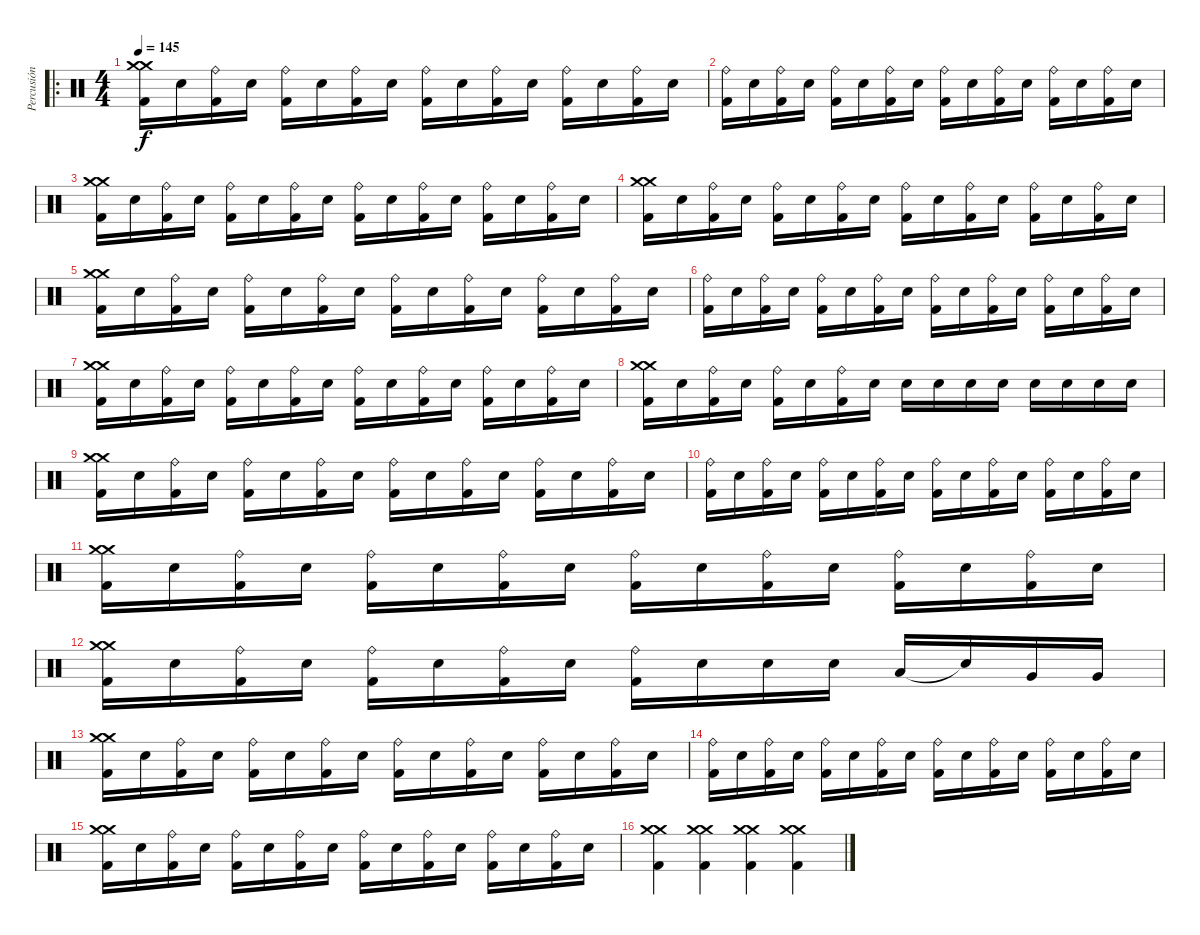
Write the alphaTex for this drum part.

\track ("Percusión" "Percusión") {instrument percussion}
\staff {score}
\articulation defaults
\ro
\ts (4 4)
\tempo 145
\clef neutral
\ks c
("Crash medium (hit)" "Crash medium (hit)" "Kick (hit) 2").16{dy f} "Snare (hit) 2".16 ("Ride (bell)" "Kick (hit) 2").16 "Snare (hit) 2".16 ("Ride (bell)" "Kick (hit) 2").16 "Snare (hit) 2".16 ("Ride (bell)" "Kick (hit) 2").16 "Snare (hit) 2".16 ("Ride (bell)" "Kick (hit) 2").16 "Snare (hit) 2".16 ("Ride (bell)" "Kick (hit) 2").16 "Snare (hit) 2".16 ("Ride (bell)" "Kick (hit) 2").16 "Snare (hit) 2".16 ("Ride (bell)" "Kick (hit) 2").16 "Snare (hit) 2".16 |
("Ride (bell)" "Kick (hit) 2").16 "Snare (hit) 2".16 ("Ride (bell)" "Kick (hit) 2").16 "Snare (hit) 2".16 ("Ride (bell)" "Kick (hit) 2").16 "Snare (hit) 2".16 ("Ride (bell)" "Kick (hit) 2").16 "Snare (hit) 2".16 ("Ride (bell)" "Kick (hit) 2").16 "Snare (hit) 2".16 ("Ride (bell)" "Kick (hit) 2").16 "Snare (hit) 2".16 ("Ride (bell)" "Kick (hit) 2").16 "Snare (hit) 2".16 ("Ride (bell)" "Kick (hit) 2").16 "Snare (hit) 2".16 |
("Crash medium (hit)" "Crash medium (hit)" "Kick (hit) 2").16 "Snare (hit) 2".16 ("Ride (bell)" "Kick (hit) 2").16 "Snare (hit) 2".16 ("Ride (bell)" "Kick (hit) 2").16 "Snare (hit) 2".16 ("Ride (bell)" "Kick (hit) 2").16 "Snare (hit) 2".16 ("Ride (bell)" "Kick (hit) 2").16 "Snare (hit) 2".16 ("Ride (bell)" "Kick (hit) 2").16 "Snare (hit) 2".16 ("Ride (bell)" "Kick (hit) 2").16 "Snare (hit) 2".16 ("Ride (bell)" "Kick (hit) 2").16 "Snare (hit) 2".16 |
("Crash medium (hit)" "Crash medium (hit)" "Kick (hit) 2").16 "Snare (hit) 2".16 ("Ride (bell)" "Kick (hit) 2").16 "Snare (hit) 2".16 ("Ride (bell)" "Kick (hit) 2").16 "Snare (hit) 2".16 ("Ride (bell)" "Kick (hit) 2").16 "Snare (hit) 2".16 ("Ride (bell)" "Kick (hit) 2").16 "Snare (hit) 2".16 ("Ride (bell)" "Kick (hit) 2").16 "Snare (hit) 2".16 ("Ride (bell)" "Kick (hit) 2").16 "Snare (hit) 2".16 ("Ride (bell)" "Kick (hit) 2").16 "Snare (hit) 2".16 |
("Crash medium (hit)" "Crash medium (hit)" "Kick (hit) 2").16 "Snare (hit) 2".16 ("Ride (bell)" "Kick (hit) 2").16 "Snare (hit) 2".16 ("Ride (bell)" "Kick (hit) 2").16 "Snare (hit) 2".16 ("Ride (bell)" "Kick (hit) 2").16 "Snare (hit) 2".16 ("Ride (bell)" "Kick (hit) 2").16 "Snare (hit) 2".16 ("Ride (bell)" "Kick (hit) 2").16 "Snare (hit) 2".16 ("Ride (bell)" "Kick (hit) 2").16 "Snare (hit) 2".16 ("Ride (bell)" "Kick (hit) 2").16 "Snare (hit) 2".16 |
("Ride (bell)" "Kick (hit) 2").16 "Snare (hit) 2".16 ("Ride (bell)" "Kick (hit) 2").16 "Snare (hit) 2".16 ("Ride (bell)" "Kick (hit) 2").16 "Snare (hit) 2".16 ("Ride (bell)" "Kick (hit) 2").16 "Snare (hit) 2".16 ("Ride (bell)" "Kick (hit) 2").16 "Snare (hit) 2".16 ("Ride (bell)" "Kick (hit) 2").16 "Snare (hit) 2".16 ("Ride (bell)" "Kick (hit) 2").16 "Snare (hit) 2".16 ("Ride (bell)" "Kick (hit) 2").16 "Snare (hit) 2".16 |
("Crash medium (hit)" "Crash medium (hit)" "Kick (hit) 2").16 "Snare (hit) 2".16 ("Ride (bell)" "Kick (hit) 2").16 "Snare (hit) 2".16 ("Ride (bell)" "Kick (hit) 2").16 "Snare (hit) 2".16 ("Ride (bell)" "Kick (hit) 2").16 "Snare (hit) 2".16 ("Ride (bell)" "Kick (hit) 2").16 "Snare (hit) 2".16 ("Ride (bell)" "Kick (hit) 2").16 "Snare (hit) 2".16 ("Ride (bell)" "Kick (hit) 2").16 "Snare (hit) 2".16 ("Ride (bell)" "Kick (hit) 2").16 "Snare (hit) 2".16 |
("Crash medium (hit)" "Crash medium (hit)" "Kick (hit) 2").16 "Snare (hit) 2".16 ("Ride (bell)" "Kick (hit) 2").16 "Snare (hit) 2".16 ("Ride (bell)" "Kick (hit) 2").16 "Snare (hit) 2".16 ("Ride (bell)" "Kick (hit) 2").16 "Snare (hit) 2".16 "Snare (hit) 2".16 "Snare (hit) 2".16 "Snare (hit) 2".16 "Snare (hit) 2".16 "Snare (hit) 2".16 "Snare (hit) 2".16 "Snare (hit) 2".16 "Snare (hit) 2".16 |
("Crash medium (hit)" "Crash medium (hit)" "Kick (hit) 2").16 "Snare (hit) 2".16 ("Ride (bell)" "Kick (hit) 2").16 "Snare (hit) 2".16 ("Ride (bell)" "Kick (hit) 2").16 "Snare (hit) 2".16 ("Ride (bell)" "Kick (hit) 2").16 "Snare (hit) 2".16 ("Ride (bell)" "Kick (hit) 2").16 "Snare (hit) 2".16 ("Ride (bell)" "Kick (hit) 2").16 "Snare (hit) 2".16 ("Ride (bell)" "Kick (hit) 2").16 "Snare (hit) 2".16 ("Ride (bell)" "Kick (hit) 2").16 "Snare (hit) 2".16 |
("Ride (bell)" "Kick (hit) 2").16 "Snare (hit) 2".16 ("Ride (bell)" "Kick (hit) 2").16 "Snare (hit) 2".16 ("Ride (bell)" "Kick (hit) 2").16 "Snare (hit) 2".16 ("Ride (bell)" "Kick (hit) 2").16 "Snare (hit) 2".16 ("Ride (bell)" "Kick (hit) 2").16 "Snare (hit) 2".16 ("Ride (bell)" "Kick (hit) 2").16 "Snare (hit) 2".16 ("Ride (bell)" "Kick (hit) 2").16 "Snare (hit) 2".16 ("Ride (bell)" "Kick (hit) 2").16 "Snare (hit) 2".16 |
("Crash medium (hit)" "Crash medium (hit)" "Kick (hit) 2").16 "Snare (hit) 2".16 ("Ride (bell)" "Kick (hit) 2").16 "Snare (hit) 2".16 ("Ride (bell)" "Kick (hit) 2").16 "Snare (hit) 2".16 ("Ride (bell)" "Kick (hit) 2").16 "Snare (hit) 2".16 ("Ride (bell)" "Kick (hit) 2").16 "Snare (hit) 2".16 ("Ride (bell)" "Kick (hit) 2").16 "Snare (hit) 2".16 ("Ride (bell)" "Kick (hit) 2").16 "Snare (hit) 2".16 ("Ride (bell)" "Kick (hit) 2").16 "Snare (hit) 2".16 |
("Crash medium (hit)" "Crash medium (hit)" "Kick (hit) 2").16 "Snare (hit) 2".16 ("Ride (bell)" "Kick (hit) 2").16 "Snare (hit) 2".16 ("Ride (bell)" "Kick (hit) 2").16 "Snare (hit) 2".16 ("Ride (bell)" "Kick (hit) 2").16 "Snare (hit) 2".16 ("Ride (bell)" "Kick (hit) 2").16 "Snare (hit) 2".16 "Snare (hit) 2".16 "Snare (hit) 2".16 "Low Tom (hit)".16 "Snare (hit) 2"{t}.16 "Very Low Tom (hit)".16 "Very Low Tom (hit)".16 |
("Crash medium (hit)" "Crash medium (hit)" "Kick (hit) 2").16 "Snare (hit) 2".16 ("Ride (bell)" "Kick (hit) 2").16 "Snare (hit) 2".16 ("Ride (bell)" "Kick (hit) 2").16 "Snare (hit) 2".16 ("Ride (bell)" "Kick (hit) 2").16 "Snare (hit) 2".16 ("Ride (bell)" "Kick (hit) 2").16 "Snare (hit) 2".16 ("Ride (bell)" "Kick (hit) 2").16 "Snare (hit) 2".16 ("Ride (bell)" "Kick (hit) 2").16 "Snare (hit) 2".16 ("Ride (bell)" "Kick (hit) 2").16 "Snare (hit) 2".16 |
("Ride (bell)" "Kick (hit) 2").16 "Snare (hit) 2".16 ("Ride (bell)" "Kick (hit) 2").16 "Snare (hit) 2".16 ("Ride (bell)" "Kick (hit) 2").16 "Snare (hit) 2".16 ("Ride (bell)" "Kick (hit) 2").16 "Snare (hit) 2".16 ("Ride (bell)" "Kick (hit) 2").16 "Snare (hit) 2".16 ("Ride (bell)" "Kick (hit) 2").16 "Snare (hit) 2".16 ("Ride (bell)" "Kick (hit) 2").16 "Snare (hit) 2".16 ("Ride (bell)" "Kick (hit) 2").16 "Snare (hit) 2".16 |
("Crash medium (hit)" "Crash medium (hit)" "Kick (hit) 2").16 "Snare (hit) 2".16 ("Ride (bell)" "Kick (hit) 2").16 "Snare (hit) 2".16 ("Ride (bell)" "Kick (hit) 2").16 "Snare (hit) 2".16 ("Ride (bell)" "Kick (hit) 2").16 "Snare (hit) 2".16 ("Ride (bell)" "Kick (hit) 2").16 "Snare (hit) 2".16 ("Ride (bell)" "Kick (hit) 2").16 "Snare (hit) 2".16 ("Ride (bell)" "Kick (hit) 2").16 "Snare (hit) 2".16 ("Ride (bell)" "Kick (hit) 2").16 "Snare (hit) 2".16 |
("Crash medium (hit)" "Crash medium (hit)" "Kick (hit) 2").4 ("Crash medium (hit)" "Crash medium (hit)" "Kick (hit) 2").4 ("Crash medium (hit)" "Crash medium (hit)" "Kick (hit) 2").4 ("Crash medium (hit)" "Crash medium (hit)" "Kick (hit) 2").4
